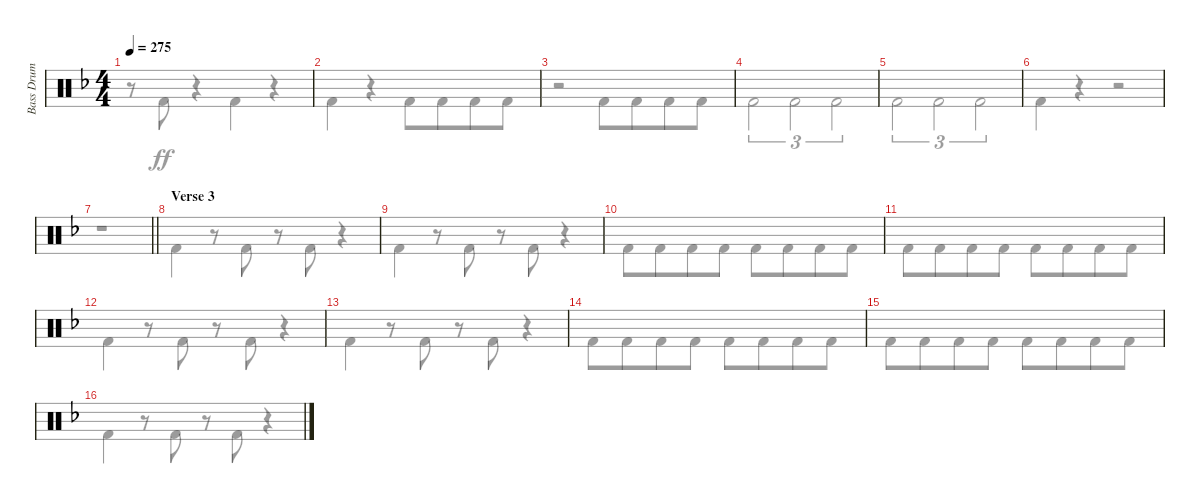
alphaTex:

\track ("Bass Drum" "Bass Drum") {instrument percussion}
\staff {score}
\articulation defaults
\voice
\ts (4 4)
\tempo 275
\clef neutral
\ks dminor
|
|
|
|
|
|
\barLineRight lightlight
|
\section ("" "Verse 3")
|
|
|
|
|
|
|
|
\voice
\clef neutral
\ks dminor
r.8{dy ff} "Kick (hit) 2".8 r.4 "Kick (hit) 2".4 r.4 |
"Kick (hit) 2".4 r.4 "Kick (hit) 2".8 "Kick (hit) 2".8{beam merge} "Kick (hit) 2".8 "Kick (hit) 2".8 |
r.2 "Kick (hit) 2".8 "Kick (hit) 2".8{beam merge} "Kick (hit) 2".8 "Kick (hit) 2".8 |
"Kick (hit) 2".2{tu (3 2)} "Kick (hit) 2".2{tu (3 2)} "Kick (hit) 2".2{tu (3 2)} |
"Kick (hit) 2".2{tu (3 2)} "Kick (hit) 2".2{tu (3 2)} "Kick (hit) 2".2{tu (3 2)} |
"Kick (hit) 2".4 r.4 r.2 |
\barLineRight lightlight
r.1 |
"Kick (hit) 2".4 r.8 "Kick (hit) 2".8 r.8 "Kick (hit) 2".8 r.4 |
"Kick (hit) 2".4 r.8 "Kick (hit) 2".8 r.8 "Kick (hit) 2".8 r.4 |
"Kick (hit) 2".8 "Kick (hit) 2".8{beam merge} "Kick (hit) 2".8 "Kick (hit) 2".8 "Kick (hit) 2".8 "Kick (hit) 2".8{beam merge} "Kick (hit) 2".8 "Kick (hit) 2".8 |
"Kick (hit) 2".8 "Kick (hit) 2".8{beam merge} "Kick (hit) 2".8 "Kick (hit) 2".8 "Kick (hit) 2".8 "Kick (hit) 2".8{beam merge} "Kick (hit) 2".8 "Kick (hit) 2".8 |
"Kick (hit) 2".4 r.8 "Kick (hit) 2".8 r.8 "Kick (hit) 2".8 r.4 |
"Kick (hit) 2".4 r.8 "Kick (hit) 2".8 r.8 "Kick (hit) 2".8 r.4 |
"Kick (hit) 2".8 "Kick (hit) 2".8{beam merge} "Kick (hit) 2".8 "Kick (hit) 2".8 "Kick (hit) 2".8 "Kick (hit) 2".8{beam merge} "Kick (hit) 2".8 "Kick (hit) 2".8 |
"Kick (hit) 2".8 "Kick (hit) 2".8{beam merge} "Kick (hit) 2".8 "Kick (hit) 2".8 "Kick (hit) 2".8 "Kick (hit) 2".8{beam merge} "Kick (hit) 2".8 "Kick (hit) 2".8 |
"Kick (hit) 2".4 r.8 "Kick (hit) 2".8 r.8 "Kick (hit) 2".8 r.4
